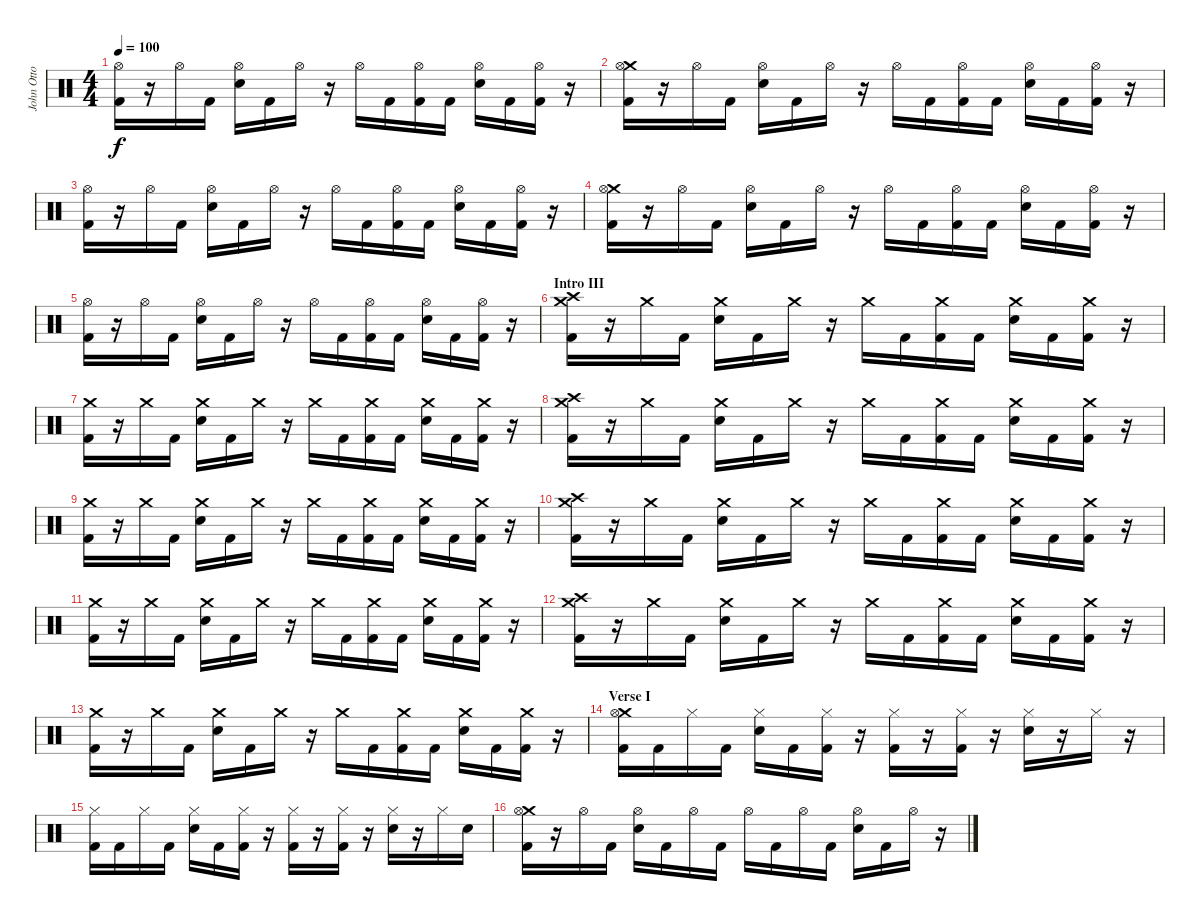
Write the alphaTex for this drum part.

\track ("John Otto - Drums" "John Otto ") {instrument percussion}
\staff {score}
\articulation defaults
\ts (4 4)
\tempo 100
\clef neutral
\ks c
("Hi-Hat (open)" "Kick (hit) 2").16{dy f} r.16 "Hi-Hat (open)".16 "Kick (hit) 2".16 ("Hi-Hat (open)" "Snare (hit) 2").16 "Kick (hit) 2".16 "Hi-Hat (open)".16 r.16 "Hi-Hat (open)".16 "Kick (hit) 2".16 ("Hi-Hat (open)" "Kick (hit) 2").16 "Kick (hit) 2".16 ("Hi-Hat (open)" "Snare (hit) 2").16 "Kick (hit) 2".16 ("Hi-Hat (open)" "Kick (hit) 2").16 r.16 |
("Crash medium (hit)" "Hi-Hat (open)" "Kick (hit) 2").16 r.16 "Hi-Hat (open)".16 "Kick (hit) 2".16 ("Hi-Hat (open)" "Snare (hit) 2").16 "Kick (hit) 2".16 "Hi-Hat (open)".16 r.16 "Hi-Hat (open)".16 "Kick (hit) 2".16 ("Hi-Hat (open)" "Kick (hit) 2").16 "Kick (hit) 2".16 ("Hi-Hat (open)" "Snare (hit) 2").16 "Kick (hit) 2".16 ("Hi-Hat (open)" "Kick (hit) 2").16 r.16 |
("Hi-Hat (open)" "Kick (hit) 2").16 r.16 "Hi-Hat (open)".16 "Kick (hit) 2".16 ("Hi-Hat (open)" "Snare (hit) 2").16 "Kick (hit) 2".16 "Hi-Hat (open)".16 r.16 "Hi-Hat (open)".16 "Kick (hit) 2".16 ("Hi-Hat (open)" "Kick (hit) 2").16 "Kick (hit) 2".16 ("Hi-Hat (open)" "Snare (hit) 2").16 "Kick (hit) 2".16 ("Hi-Hat (open)" "Kick (hit) 2").16 r.16 |
("Crash medium (hit)" "Hi-Hat (open)" "Kick (hit) 2").16 r.16 "Hi-Hat (open)".16 "Kick (hit) 2".16 ("Hi-Hat (open)" "Snare (hit) 2").16 "Kick (hit) 2".16 "Hi-Hat (open)".16 r.16 "Hi-Hat (open)".16 "Kick (hit) 2".16 ("Hi-Hat (open)" "Kick (hit) 2").16 "Kick (hit) 2".16 ("Hi-Hat (open)" "Snare (hit) 2").16 "Kick (hit) 2".16 ("Hi-Hat (open)" "Kick (hit) 2").16 r.16 |
("Hi-Hat (open)" "Kick (hit) 2").16 r.16 "Hi-Hat (open)".16 "Kick (hit) 2".16 ("Hi-Hat (open)" "Snare (hit) 2").16 "Kick (hit) 2".16 "Hi-Hat (open)".16 r.16 "Hi-Hat (open)".16 "Kick (hit) 2".16 ("Hi-Hat (open)" "Kick (hit) 2").16 "Kick (hit) 2".16 ("Hi-Hat (open)" "Snare (hit) 2").16 "Kick (hit) 2".16 ("Hi-Hat (open)" "Kick (hit) 2").16 r.16 |
\section ("" "Intro III")
("Crash medium (hit)" "Crash high (hit)" "Kick (hit) 2").16 r.16 "Crash medium (hit)".16 "Kick (hit) 2".16 ("Crash medium (hit)" "Snare (hit) 2").16 "Kick (hit) 2".16 "Crash medium (hit)".16 r.16 "Crash medium (hit)".16 "Kick (hit) 2".16 ("Crash medium (hit)" "Kick (hit) 2").16 "Kick (hit) 2".16 ("Crash medium (hit)" "Snare (hit) 2").16 "Kick (hit) 2".16 ("Crash medium (hit)" "Kick (hit) 2").16 r.16 |
("Crash medium (hit)" "Kick (hit) 2").16 r.16 "Crash medium (hit)".16 "Kick (hit) 2".16 ("Crash medium (hit)" "Snare (hit) 2").16 "Kick (hit) 2".16 "Crash medium (hit)".16 r.16 "Crash medium (hit)".16 "Kick (hit) 2".16 ("Crash medium (hit)" "Kick (hit) 2").16 "Kick (hit) 2".16 ("Crash medium (hit)" "Snare (hit) 2").16 "Kick (hit) 2".16 ("Crash medium (hit)" "Kick (hit) 2").16 r.16 |
("Crash medium (hit)" "Crash high (hit)" "Kick (hit) 2").16 r.16 "Crash medium (hit)".16 "Kick (hit) 2".16 ("Crash medium (hit)" "Snare (hit) 2").16 "Kick (hit) 2".16 "Crash medium (hit)".16 r.16 "Crash medium (hit)".16 "Kick (hit) 2".16 ("Crash medium (hit)" "Kick (hit) 2").16 "Kick (hit) 2".16 ("Crash medium (hit)" "Snare (hit) 2").16 "Kick (hit) 2".16 ("Crash medium (hit)" "Kick (hit) 2").16 r.16 |
("Crash medium (hit)" "Kick (hit) 2").16 r.16 "Crash medium (hit)".16 "Kick (hit) 2".16 ("Crash medium (hit)" "Snare (hit) 2").16 "Kick (hit) 2".16 "Crash medium (hit)".16 r.16 "Crash medium (hit)".16 "Kick (hit) 2".16 ("Crash medium (hit)" "Kick (hit) 2").16 "Kick (hit) 2".16 ("Crash medium (hit)" "Snare (hit) 2").16 "Kick (hit) 2".16 ("Crash medium (hit)" "Kick (hit) 2").16 r.16 |
("Crash medium (hit)" "Crash high (hit)" "Kick (hit) 2").16 r.16 "Crash medium (hit)".16 "Kick (hit) 2".16 ("Crash medium (hit)" "Snare (hit) 2").16 "Kick (hit) 2".16 "Crash medium (hit)".16 r.16 "Crash medium (hit)".16 "Kick (hit) 2".16 ("Crash medium (hit)" "Kick (hit) 2").16 "Kick (hit) 2".16 ("Crash medium (hit)" "Snare (hit) 2").16 "Kick (hit) 2".16 ("Crash medium (hit)" "Kick (hit) 2").16 r.16 |
("Crash medium (hit)" "Kick (hit) 2").16 r.16 "Crash medium (hit)".16 "Kick (hit) 2".16 ("Crash medium (hit)" "Snare (hit) 2").16 "Kick (hit) 2".16 "Crash medium (hit)".16 r.16 "Crash medium (hit)".16 "Kick (hit) 2".16 ("Crash medium (hit)" "Kick (hit) 2").16 "Kick (hit) 2".16 ("Crash medium (hit)" "Snare (hit) 2").16 "Kick (hit) 2".16 ("Crash medium (hit)" "Kick (hit) 2").16 r.16 |
("Crash medium (hit)" "Crash high (hit)" "Kick (hit) 2").16 r.16 "Crash medium (hit)".16 "Kick (hit) 2".16 ("Crash medium (hit)" "Snare (hit) 2").16 "Kick (hit) 2".16 "Crash medium (hit)".16 r.16 "Crash medium (hit)".16 "Kick (hit) 2".16 ("Crash medium (hit)" "Kick (hit) 2").16 "Kick (hit) 2".16 ("Crash medium (hit)" "Snare (hit) 2").16 "Kick (hit) 2".16 ("Crash medium (hit)" "Kick (hit) 2").16 r.16 |
("Crash medium (hit)" "Kick (hit) 2").16 r.16 "Crash medium (hit)".16 "Kick (hit) 2".16 ("Crash medium (hit)" "Snare (hit) 2").16 "Kick (hit) 2".16 "Crash medium (hit)".16 r.16 "Crash medium (hit)".16 "Kick (hit) 2".16 ("Crash medium (hit)" "Kick (hit) 2").16 "Kick (hit) 2".16 ("Crash medium (hit)" "Snare (hit) 2").16 "Kick (hit) 2".16 ("Crash medium (hit)" "Kick (hit) 2").16 r.16 |
\section ("" "Verse I")
("Crash medium (hit)" "Hi-Hat (open)" "Kick (hit) 2").16 "Kick (hit) 2".16 "Hi-Hat (closed)".16 "Kick (hit) 2".16 ("Hi-Hat (closed)" "Snare (hit) 2").16 "Kick (hit) 2".16 ("Hi-Hat (closed)" "Kick (hit) 2").16 r.16 ("Hi-Hat (closed)" "Kick (hit) 2").16 r.16 ("Hi-Hat (closed)" "Kick (hit) 2").16 r.16 ("Hi-Hat (closed)" "Snare (hit) 2").16 r.16 "Hi-Hat (closed)".16 r.16 |
("Hi-Hat (closed)" "Kick (hit) 2").16 "Kick (hit) 2".16 "Hi-Hat (closed)".16 "Kick (hit) 2".16 ("Hi-Hat (closed)" "Snare (hit) 2").16 "Kick (hit) 2".16 ("Hi-Hat (closed)" "Kick (hit) 2").16 r.16 ("Hi-Hat (closed)" "Kick (hit) 2").16 r.16 ("Hi-Hat (closed)" "Kick (hit) 2").16 r.16 ("Hi-Hat (closed)" "Snare (hit) 2").16 r.16 "Hi-Hat (closed)".16 "Snare (hit) 2".16 |
("Crash medium (hit)" "Hi-Hat (open)" "Kick (hit) 2").16 r.16 "Hi-Hat (open)".16 "Kick (hit) 2".16 ("Hi-Hat (open)" "Snare (hit) 2").16 "Kick (hit) 2".16 "Hi-Hat (open)".16 "Kick (hit) 2".16 "Hi-Hat (open)".16 "Kick (hit) 2".16 "Hi-Hat (open)".16 "Kick (hit) 2".16 ("Hi-Hat (open)" "Snare (hit) 2").16 "Kick (hit) 2".16 "Hi-Hat (open)".16 r.16
